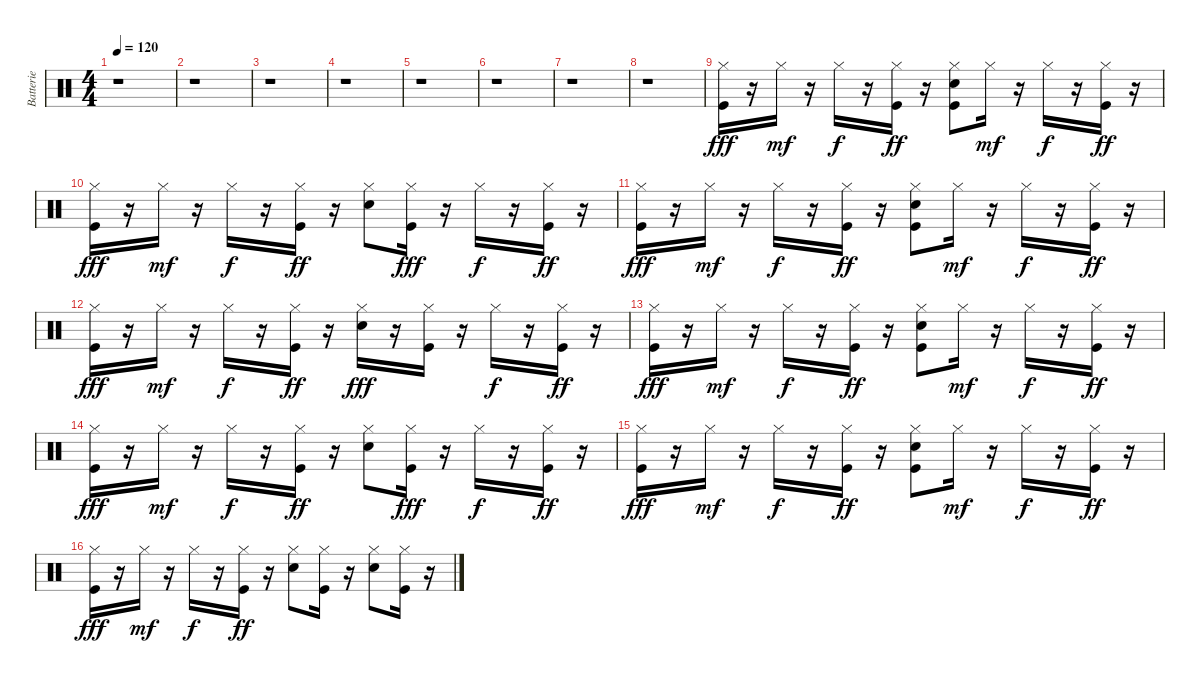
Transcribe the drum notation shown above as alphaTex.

\track ("Batterie" "Batterie") {instrument percussion}
\staff {score}
\articulation defaults
\ts (4 4)
\tempo 120
\clef neutral
\ks c
r.1{dy fff} |
r.1 |
r.1 |
r.1 |
r.1 |
r.1 |
r.1 |
r.1 |
("Hi-Hat (closed)" "Kick (hit)").16 r.16 "Hi-Hat (closed)".16{dy mf} r.16 "Hi-Hat (closed)".16{dy f} r.16 ("Hi-Hat (closed)" "Kick (hit)").16{dy ff} r.16 ("Hi-Hat (closed)" "Kick (hit)" "Electric Snare (hit)").8 "Hi-Hat (closed)".16{dy mf} r.16 "Hi-Hat (closed)".16{dy f} r.16 ("Hi-Hat (closed)" "Kick (hit)").16{dy ff} r.16 |
("Hi-Hat (closed)" "Kick (hit)").16{dy fff} r.16 "Hi-Hat (closed)".16{dy mf} r.16 "Hi-Hat (closed)".16{dy f} r.16 ("Hi-Hat (closed)" "Kick (hit)").16{dy ff} r.16 ("Hi-Hat (closed)" "Electric Snare (hit)").8 ("Hi-Hat (closed)" "Kick (hit)").16{dy fff} r.16 "Hi-Hat (closed)".16{dy f} r.16 ("Hi-Hat (closed)" "Kick (hit)").16{dy ff} r.16 |
("Hi-Hat (closed)" "Kick (hit)").16{dy fff} r.16 "Hi-Hat (closed)".16{dy mf} r.16 "Hi-Hat (closed)".16{dy f} r.16 ("Hi-Hat (closed)" "Kick (hit)").16{dy ff} r.16 ("Hi-Hat (closed)" "Kick (hit)" "Electric Snare (hit)").8 "Hi-Hat (closed)".16{dy mf} r.16 "Hi-Hat (closed)".16{dy f} r.16 ("Hi-Hat (closed)" "Kick (hit)").16{dy ff} r.16 |
("Hi-Hat (closed)" "Kick (hit)").16{dy fff} r.16 "Hi-Hat (closed)".16{dy mf} r.16 "Hi-Hat (closed)".16{dy f} r.16 ("Hi-Hat (closed)" "Kick (hit)").16{dy ff} r.16 ("Hi-Hat (closed)" "Electric Snare (hit)").16{dy fff} r.16 ("Hi-Hat (closed)" "Kick (hit)").16 r.16 "Hi-Hat (closed)".16{dy f} r.16 ("Hi-Hat (closed)" "Kick (hit)").16{dy ff} r.16 |
("Hi-Hat (closed)" "Kick (hit)").16{dy fff} r.16 "Hi-Hat (closed)".16{dy mf} r.16 "Hi-Hat (closed)".16{dy f} r.16 ("Hi-Hat (closed)" "Kick (hit)").16{dy ff} r.16 ("Hi-Hat (closed)" "Kick (hit)" "Electric Snare (hit)").8 "Hi-Hat (closed)".16{dy mf} r.16 "Hi-Hat (closed)".16{dy f} r.16 ("Hi-Hat (closed)" "Kick (hit)").16{dy ff} r.16 |
("Hi-Hat (closed)" "Kick (hit)").16{dy fff} r.16 "Hi-Hat (closed)".16{dy mf} r.16 "Hi-Hat (closed)".16{dy f} r.16 ("Hi-Hat (closed)" "Kick (hit)").16{dy ff} r.16 ("Hi-Hat (closed)" "Electric Snare (hit)").8 ("Hi-Hat (closed)" "Kick (hit)").16{dy fff} r.16 "Hi-Hat (closed)".16{dy f} r.16 ("Hi-Hat (closed)" "Kick (hit)").16{dy ff} r.16 |
("Hi-Hat (closed)" "Kick (hit)").16{dy fff} r.16 "Hi-Hat (closed)".16{dy mf} r.16 "Hi-Hat (closed)".16{dy f} r.16 ("Hi-Hat (closed)" "Kick (hit)").16{dy ff} r.16 ("Hi-Hat (closed)" "Kick (hit)" "Electric Snare (hit)").8 "Hi-Hat (closed)".16{dy mf} r.16 "Hi-Hat (closed)".16{dy f} r.16 ("Hi-Hat (closed)" "Kick (hit)").16{dy ff} r.16 |
("Hi-Hat (closed)" "Kick (hit)").16{dy fff} r.16 "Hi-Hat (closed)".16{dy mf} r.16 "Hi-Hat (closed)".16{dy f} r.16 ("Hi-Hat (closed)" "Kick (hit)").16{dy ff} r.16 ("Hi-Hat (closed)" "Electric Snare (hit)").8 ("Hi-Hat (closed)" "Kick (hit)").16 r.16 ("Hi-Hat (closed)" "Electric Snare (hit)").8 ("Hi-Hat (closed)" "Kick (hit)").16 r.16
